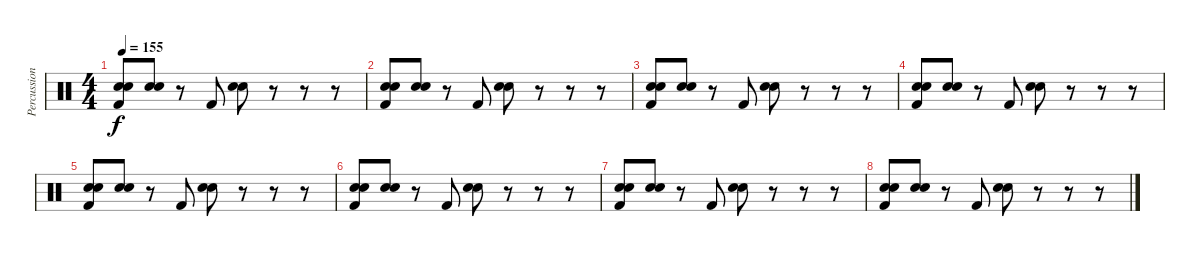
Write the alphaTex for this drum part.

\track ("Percussion" "Percussion") {instrument percussion}
\staff {score}
\articulation defaults
\ts (4 4)
\tempo 155
\clef neutral
\ks c
("Hand Clap (hit)" "Snare (hit) 2" "Kick (hit) 2").8{dy f} ("Hand Clap (hit)" "Snare (hit) 2").8 r.8 "Kick (hit) 2".8 ("Hand Clap (hit)" "Snare (hit) 2").8 r.8 r.8 r.8 |
("Hand Clap (hit)" "Snare (hit) 2" "Kick (hit) 2").8 ("Hand Clap (hit)" "Snare (hit) 2").8 r.8 "Kick (hit) 2".8 ("Hand Clap (hit)" "Snare (hit) 2").8 r.8 r.8 r.8 |
("Hand Clap (hit)" "Snare (hit) 2" "Kick (hit) 2").8 ("Hand Clap (hit)" "Snare (hit) 2").8 r.8 "Kick (hit) 2".8 ("Hand Clap (hit)" "Snare (hit) 2").8 r.8 r.8 r.8 |
("Hand Clap (hit)" "Snare (hit) 2" "Kick (hit) 2").8 ("Hand Clap (hit)" "Snare (hit) 2").8 r.8 "Kick (hit) 2".8 ("Hand Clap (hit)" "Snare (hit) 2").8 r.8 r.8 r.8 |
("Hand Clap (hit)" "Snare (hit) 2" "Kick (hit) 2").8 ("Hand Clap (hit)" "Snare (hit) 2").8 r.8 "Kick (hit) 2".8 ("Hand Clap (hit)" "Snare (hit) 2").8 r.8 r.8 r.8 |
("Hand Clap (hit)" "Snare (hit) 2" "Kick (hit) 2").8 ("Hand Clap (hit)" "Snare (hit) 2").8 r.8 "Kick (hit) 2".8 ("Hand Clap (hit)" "Snare (hit) 2").8 r.8 r.8 r.8 |
("Hand Clap (hit)" "Snare (hit) 2" "Kick (hit) 2").8 ("Hand Clap (hit)" "Snare (hit) 2").8 r.8 "Kick (hit) 2".8 ("Hand Clap (hit)" "Snare (hit) 2").8 r.8 r.8 r.8 |
("Hand Clap (hit)" "Snare (hit) 2" "Kick (hit) 2").8 ("Hand Clap (hit)" "Snare (hit) 2").8 r.8 "Kick (hit) 2".8 ("Hand Clap (hit)" "Snare (hit) 2").8 r.8 r.8 r.8
